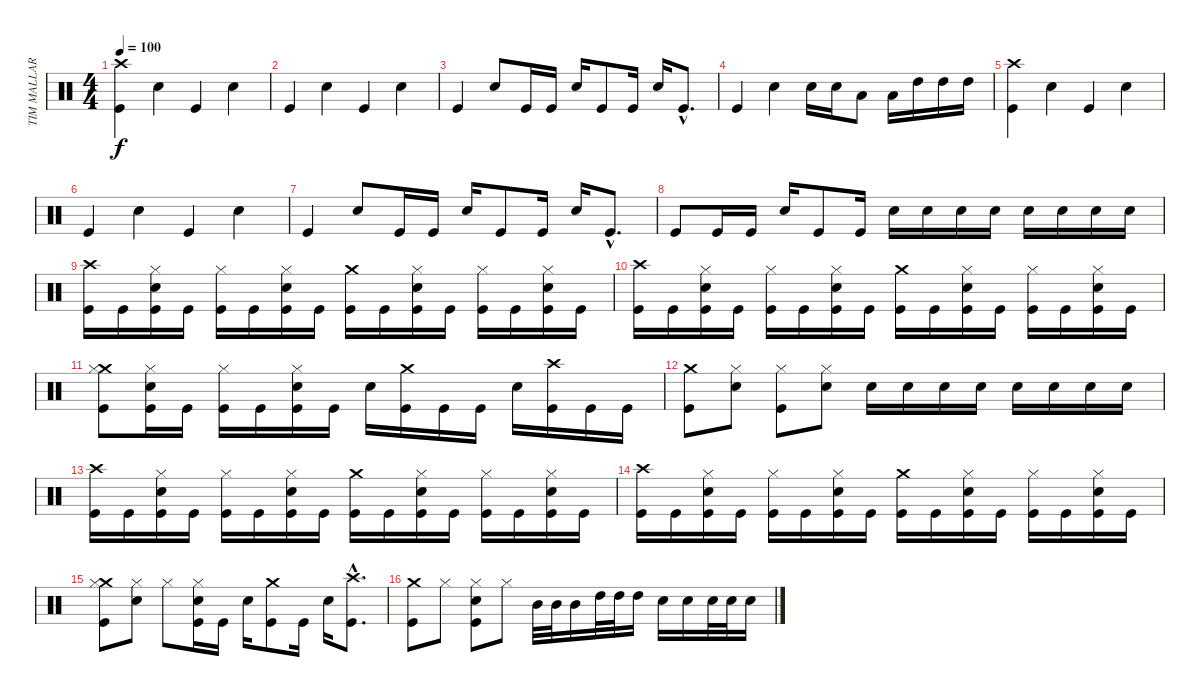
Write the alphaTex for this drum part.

\track ("TIM MALLARE - drums" "TIM MALLAR") {instrument percussion}
\staff {score}
\articulation defaults
\ts (4 4)
\tempo 100
\clef neutral
\ks c
("Crash high (hit)" "Kick (hit)").4{dy f} "Electric Snare (hit)".4 "Kick (hit)".4 "Electric Snare (hit)".4 |
"Kick (hit)".4 "Electric Snare (hit)".4 "Kick (hit)".4 "Electric Snare (hit)".4 |
"Kick (hit)".4 "Electric Snare (hit)".8 "Kick (hit)".16 "Kick (hit)".16 "Electric Snare (hit)".16 "Kick (hit)".8 "Kick (hit)".16 "Electric Snare (hit)".16 "Kick (hit)"{hac}.8{d} |
"Kick (hit)".4 "Electric Snare (hit)".4 "Electric Snare (hit)".16 "Electric Snare (hit)".16 "Low Tom (hit)".8 "Low Tom (hit)".16 "High Tom (hit)".16 "High Tom (hit)".16 "High Tom (hit)".16 |
("Crash high (hit)" "Kick (hit)").4 "Electric Snare (hit)".4 "Kick (hit)".4 "Electric Snare (hit)".4 |
"Kick (hit)".4 "Electric Snare (hit)".4 "Kick (hit)".4 "Electric Snare (hit)".4 |
"Kick (hit)".4 "Electric Snare (hit)".8 "Kick (hit)".16 "Kick (hit)".16 "Electric Snare (hit)".16 "Kick (hit)".8 "Kick (hit)".16 "Electric Snare (hit)".16 "Kick (hit)"{hac}.8{d} |
"Kick (hit)".8 "Kick (hit)".16 "Kick (hit)".16 "Electric Snare (hit)".16 "Kick (hit)".8 "Kick (hit)".16 "Electric Snare (hit)".16 "Electric Snare (hit)".16 "Electric Snare (hit)".16 "Electric Snare (hit)".16 "Electric Snare (hit)".16 "Electric Snare (hit)".16 "Electric Snare (hit)".16 "Electric Snare (hit)".16 |
("Crash high (hit)" "Kick (hit)").16 "Kick (hit)".16 ("Hi-Hat (closed)" "Electric Snare (hit)" "Kick (hit)").16 "Kick (hit)".16 ("Hi-Hat (closed)" "Kick (hit)").16 "Kick (hit)".16 ("Hi-Hat (closed)" "Electric Snare (hit)" "Kick (hit)").16 "Kick (hit)".16 ("Crash medium (hit)" "Kick (hit)").16 "Kick (hit)".16 ("Hi-Hat (closed)" "Electric Snare (hit)" "Kick (hit)").16 "Kick (hit)".16 ("Hi-Hat (closed)" "Kick (hit)").16 "Kick (hit)".16 ("Hi-Hat (closed)" "Electric Snare (hit)" "Kick (hit)").16 "Kick (hit)".16 |
("Crash high (hit)" "Kick (hit)").16 "Kick (hit)".16 ("Hi-Hat (closed)" "Electric Snare (hit)" "Kick (hit)").16 "Kick (hit)".16 ("Hi-Hat (closed)" "Kick (hit)").16 "Kick (hit)".16 ("Hi-Hat (closed)" "Electric Snare (hit)" "Kick (hit)").16 "Kick (hit)".16 ("Crash medium (hit)" "Kick (hit)").16 "Kick (hit)".16 ("Hi-Hat (closed)" "Electric Snare (hit)" "Kick (hit)").16 "Kick (hit)".16 ("Hi-Hat (closed)" "Kick (hit)").16 "Kick (hit)".16 ("Hi-Hat (closed)" "Electric Snare (hit)" "Kick (hit)").16 "Kick (hit)".16 |
("Crash medium (hit)" "Hi-Hat (closed)" "Kick (hit)").8 ("Electric Snare (hit)" "Hi-Hat (closed)" "Kick (hit)").16 "Kick (hit)".16 ("Hi-Hat (closed)" "Kick (hit)").16 "Kick (hit)".16 ("Hi-Hat (closed)" "Electric Snare (hit)" "Kick (hit)").16 "Kick (hit)".16 "Electric Snare (hit)".16 ("Crash medium (hit)" "Kick (hit)").16 "Kick (hit)".16 "Kick (hit)".16 "Electric Snare (hit)".16 ("Crash high (hit)" "Kick (hit)").16 "Kick (hit)".16 "Kick (hit)".16 |
("Crash medium (hit)" "Kick (hit)").8 ("Electric Snare (hit)" "Hi-Hat (closed)").8 ("Hi-Hat (closed)" "Kick (hit)").8 ("Electric Snare (hit)" "Hi-Hat (closed)").8 "Electric Snare (hit)".16 "Electric Snare (hit)".16 "Electric Snare (hit)".16 "Electric Snare (hit)".16 "Electric Snare (hit)".16 "Electric Snare (hit)".16 "Electric Snare (hit)".16 "Electric Snare (hit)".16 |
("Crash high (hit)" "Kick (hit)").16 "Kick (hit)".16 ("Hi-Hat (closed)" "Electric Snare (hit)" "Kick (hit)").16 "Kick (hit)".16 ("Hi-Hat (closed)" "Kick (hit)").16 "Kick (hit)".16 ("Hi-Hat (closed)" "Electric Snare (hit)" "Kick (hit)").16 "Kick (hit)".16 ("Crash medium (hit)" "Kick (hit)").16 "Kick (hit)".16 ("Hi-Hat (closed)" "Electric Snare (hit)" "Kick (hit)").16 "Kick (hit)".16 ("Hi-Hat (closed)" "Kick (hit)").16 "Kick (hit)".16 ("Hi-Hat (closed)" "Electric Snare (hit)" "Kick (hit)").16 "Kick (hit)".16 |
("Crash high (hit)" "Kick (hit)").16 "Kick (hit)".16 ("Hi-Hat (closed)" "Electric Snare (hit)" "Kick (hit)").16 "Kick (hit)".16 ("Hi-Hat (closed)" "Kick (hit)").16 "Kick (hit)".16 ("Hi-Hat (closed)" "Electric Snare (hit)" "Kick (hit)").16 "Kick (hit)".16 ("Crash medium (hit)" "Kick (hit)").16 "Kick (hit)".16 ("Hi-Hat (closed)" "Electric Snare (hit)" "Kick (hit)").16 "Kick (hit)".16 ("Hi-Hat (closed)" "Kick (hit)").16 "Kick (hit)".16 ("Hi-Hat (closed)" "Electric Snare (hit)" "Kick (hit)").16 "Kick (hit)".16 |
("Crash medium (hit)" "Hi-Hat (closed)" "Kick (hit)").8 ("Electric Snare (hit)" "Hi-Hat (closed)").8 "Hi-Hat (closed)".8 ("Hi-Hat (closed)" "Electric Snare (hit)" "Kick (hit)").16 "Kick (hit)".16 "Electric Snare (hit)".16 ("Crash medium (hit)" "Kick (hit)").8 "Kick (hit)".16 "Electric Snare (hit)".16 ("Crash high (hit)"{hac} "Kick (hit)"{hac}).8{d} |
("Crash medium (hit)" "Kick (hit)").8 "Hi-Hat (closed)".8 ("Hi-Hat (closed)" "Electric Snare (hit)" "Kick (hit)").8 "Hi-Hat (closed)".8 "Mid Tom (hit)".32 "Mid Tom (hit)".32 "Mid Tom (hit)".16 "High Tom (hit)".32 "High Tom (hit)".32 "High Tom (hit)".16 "Electric Snare (hit)".16 "Electric Snare (hit)".16 "Electric Snare (hit)".32 "Electric Snare (hit)".32 "Electric Snare (hit)".16
